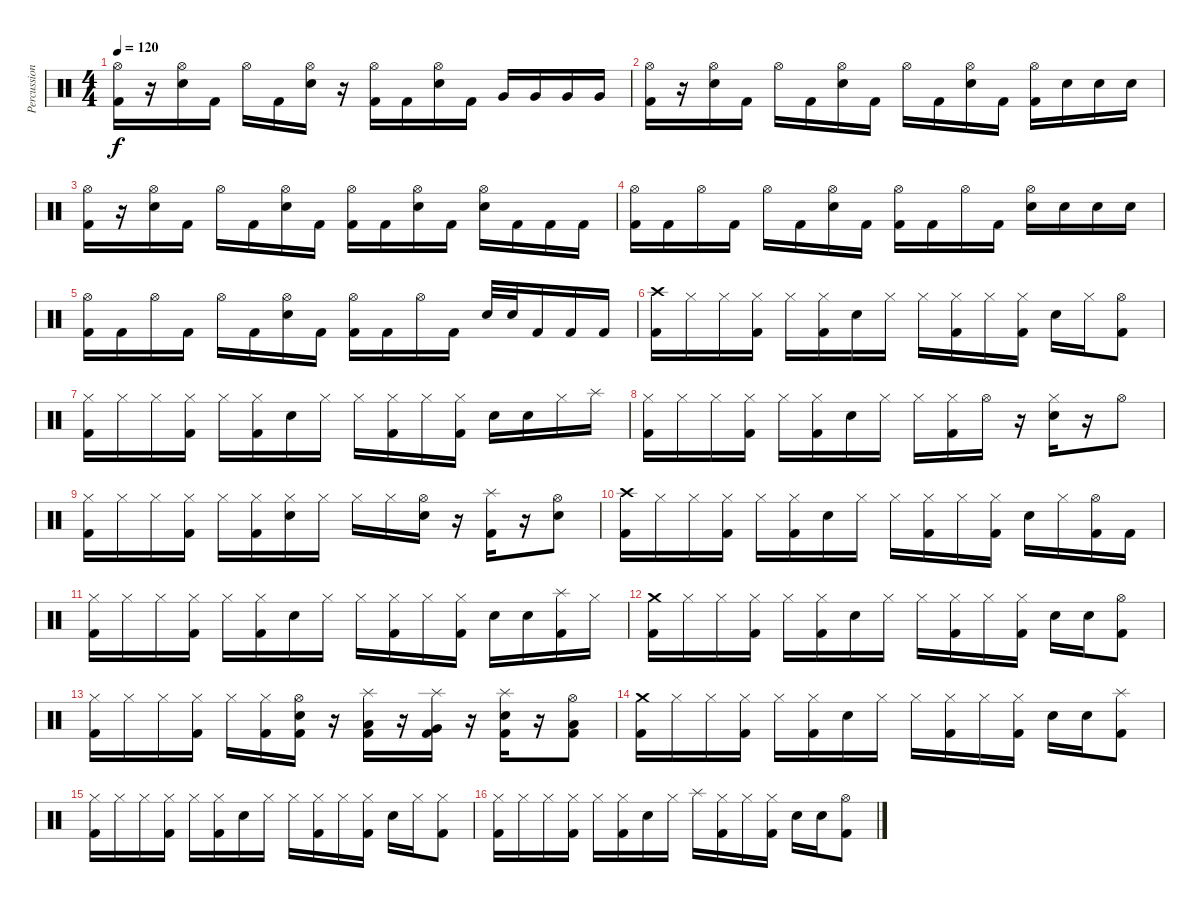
\track ("Percussion" "Percussion") {instrument percussion}
\staff {score}
\articulation defaults
\ts (4 4)
\tempo 120
\clef neutral
\ks c
("Hi-Hat (open)" "Kick (hit) 2").16{dy f} r.16 ("Hi-Hat (open)" "Electric Snare (hit)").16 "Kick (hit) 2".16 "Hi-Hat (open)".16 "Kick (hit) 2".16 ("Hi-Hat (open)" "Electric Snare (hit)").16 r.16 ("Hi-Hat (open)" "Kick (hit) 2").16 "Kick (hit) 2".16 ("Hi-Hat (open)" "Electric Snare (hit)").16 "Kick (hit) 2".16 "Very Low Tom (hit)".16 "Very Low Tom (hit)".16 "Very Low Tom (hit)".16 "Very Low Tom (hit)".16 |
("Hi-Hat (open)" "Kick (hit) 2").16 r.16 ("Hi-Hat (open)" "Electric Snare (hit)").16 "Kick (hit) 2".16 "Hi-Hat (open)".16 "Kick (hit) 2".16 ("Hi-Hat (open)" "Electric Snare (hit)").16 "Kick (hit) 2".16 "Hi-Hat (open)".16 "Kick (hit) 2".16 ("Hi-Hat (open)" "Electric Snare (hit)").16 "Kick (hit) 2".16 ("Hi-Hat (open)" "Kick (hit) 2").16 "Electric Snare (hit)".16 "Electric Snare (hit)".16 "Electric Snare (hit)".16 |
("Hi-Hat (open)" "Kick (hit) 2").16 r.16 ("Hi-Hat (open)" "Electric Snare (hit)").16 "Kick (hit) 2".16 "Hi-Hat (open)".16 "Kick (hit) 2".16 ("Hi-Hat (open)" "Electric Snare (hit)").16 "Kick (hit) 2".16 ("Hi-Hat (open)" "Kick (hit) 2").16 "Kick (hit) 2".16 ("Hi-Hat (open)" "Electric Snare (hit)").16 "Kick (hit) 2".16 ("Hi-Hat (open)" "Electric Snare (hit)").16 "Kick (hit) 2".16 "Kick (hit) 2".16 "Kick (hit) 2".16 |
("Hi-Hat (open)" "Kick (hit) 2").16 "Kick (hit) 2".16 "Hi-Hat (open)".16 "Kick (hit) 2".16 "Hi-Hat (open)".16 "Kick (hit) 2".16 ("Hi-Hat (open)" "Electric Snare (hit)").16 "Kick (hit) 2".16 ("Hi-Hat (open)" "Kick (hit) 2").16 "Kick (hit) 2".16 "Hi-Hat (open)".16 "Kick (hit) 2".16 ("Hi-Hat (open)" "Electric Snare (hit)").16 "Electric Snare (hit)".16 "Electric Snare (hit)".16 "Electric Snare (hit)".16 |
("Hi-Hat (open)" "Kick (hit) 2").16 "Kick (hit) 2".16 "Hi-Hat (open)".16 "Kick (hit) 2".16 "Hi-Hat (open)".16 "Kick (hit) 2".16 ("Hi-Hat (open)" "Electric Snare (hit)").16 "Kick (hit) 2".16 ("Hi-Hat (open)" "Kick (hit) 2").16 "Kick (hit) 2".16 "Hi-Hat (open)".16 "Kick (hit) 2".16 "Electric Snare (hit)".32 "Electric Snare (hit)".32 "Kick (hit) 2".16 "Kick (hit) 2".16 "Kick (hit) 2".16 |
("Crash high (hit)" "Kick (hit) 2").16 "Hi-Hat (closed)".16 "Hi-Hat (closed)".16 ("Hi-Hat (closed)" "Kick (hit) 2").16 "Hi-Hat (closed)".16 ("Hi-Hat (closed)" "Kick (hit) 2").16 "Electric Snare (hit)".16 "Hi-Hat (closed)".16 "Hi-Hat (closed)".16 ("Hi-Hat (closed)" "Kick (hit) 2").16 "Hi-Hat (closed)".16 ("Hi-Hat (closed)" "Kick (hit) 2").16 "Electric Snare (hit)".16 "Hi-Hat (closed)".16 ("Hi-Hat (open)" "Kick (hit) 2").8 |
("Hi-Hat (closed)" "Kick (hit) 2").16 "Hi-Hat (closed)".16 "Hi-Hat (closed)".16 ("Hi-Hat (closed)" "Kick (hit) 2").16 "Hi-Hat (closed)".16 ("Hi-Hat (closed)" "Kick (hit) 2").16 "Electric Snare (hit)".16 "Hi-Hat (closed)".16 "Hi-Hat (closed)".16 ("Hi-Hat (closed)" "Kick (hit) 2").16 "Hi-Hat (closed)".16 ("Hi-Hat (closed)" "Kick (hit) 2").16 "Electric Snare (hit)".16 "Electric Snare (hit)".16 "Hi-Hat (closed)".16 "Splash (hit)".16 |
("Hi-Hat (closed)" "Kick (hit) 2").16 "Hi-Hat (closed)".16 "Hi-Hat (closed)".16 ("Hi-Hat (closed)" "Kick (hit) 2").16 "Hi-Hat (closed)".16 ("Hi-Hat (closed)" "Kick (hit) 2").16 "Electric Snare (hit)".16 "Hi-Hat (closed)".16 "Hi-Hat (closed)".16 ("Hi-Hat (closed)" "Kick (hit) 2").16 "Hi-Hat (open)".16 r.16 ("Hi-Hat (closed)" "Electric Snare (hit)").16 r.16 "Hi-Hat (open)".8 |
("Hi-Hat (closed)" "Kick (hit) 2").16 "Hi-Hat (closed)".16 "Hi-Hat (closed)".16 ("Hi-Hat (closed)" "Kick (hit) 2").16 "Hi-Hat (closed)".16 ("Hi-Hat (closed)" "Kick (hit) 2").16 ("Hi-Hat (closed)" "Electric Snare (hit)").16 "Hi-Hat (closed)".16 "Hi-Hat (closed)".16 "Hi-Hat (closed)".16 ("Hi-Hat (open)" "Electric Snare (hit)").16 r.16 ("Splash (hit)" "Kick (hit) 2").16 r.16 ("Hi-Hat (open)" "Electric Snare (hit)").8 |
("Crash high (hit)" "Kick (hit) 2").16 "Hi-Hat (closed)".16 "Hi-Hat (closed)".16 ("Hi-Hat (closed)" "Kick (hit) 2").16 "Hi-Hat (closed)".16 ("Hi-Hat (closed)" "Kick (hit) 2").16 "Electric Snare (hit)".16 "Hi-Hat (closed)".16 "Hi-Hat (closed)".16 ("Hi-Hat (closed)" "Kick (hit) 2").16 "Hi-Hat (closed)".16 ("Hi-Hat (closed)" "Kick (hit) 2").16 "Electric Snare (hit)".16 "Hi-Hat (closed)".16 ("Hi-Hat (open)" "Kick (hit) 2").16 "Kick (hit) 2".16 |
("Hi-Hat (closed)" "Kick (hit) 2").16 "Hi-Hat (closed)".16 "Hi-Hat (closed)".16 ("Hi-Hat (closed)" "Kick (hit) 2").16 "Hi-Hat (closed)".16 ("Hi-Hat (closed)" "Kick (hit) 2").16 "Electric Snare (hit)".16 "Hi-Hat (closed)".16 "Hi-Hat (closed)".16 ("Hi-Hat (closed)" "Kick (hit) 2").16 "Hi-Hat (closed)".16 ("Hi-Hat (closed)" "Kick (hit) 2").16 "Electric Snare (hit)".16 "Electric Snare (hit)".16 ("Splash (hit)" "Kick (hit) 2").16 "Hi-Hat (closed)".16 |
("Crash medium (hit)" "Kick (hit) 2").16 "Hi-Hat (closed)".16 "Hi-Hat (closed)".16 ("Hi-Hat (closed)" "Kick (hit) 2").16 "Hi-Hat (closed)".16 ("Hi-Hat (closed)" "Kick (hit) 2").16 "Electric Snare (hit)".16 "Hi-Hat (closed)".16 "Hi-Hat (closed)".16 ("Hi-Hat (closed)" "Kick (hit) 2").16 "Hi-Hat (closed)".16 ("Hi-Hat (closed)" "Kick (hit) 2").16 "Electric Snare (hit)".16 "Electric Snare (hit)".16 ("Hi-Hat (open)" "Kick (hit) 2").8 |
("Hi-Hat (closed)" "Kick (hit) 2").16 "Hi-Hat (closed)".16 "Hi-Hat (closed)".16 ("Hi-Hat (closed)" "Kick (hit) 2").16 "Hi-Hat (closed)".16 ("Hi-Hat (closed)" "Kick (hit) 2").16 ("Hi-Hat (open)" "Electric Snare (hit)" "Kick (hit) 2").16 r.16 ("Splash (hit)" "Low Tom (hit)" "Kick (hit) 2").16 r.16 ("Splash (hit)" "Very Low Tom (hit)" "Kick (hit) 2").16 r.16 ("Splash (hit)" "Electric Snare (hit)" "Kick (hit) 2").16 r.16 ("Hi-Hat (open)" "Low Tom (hit)" "Kick (hit) 2").8 |
("Crash medium (hit)" "Kick (hit) 2").16 "Hi-Hat (closed)".16 "Hi-Hat (closed)".16 ("Hi-Hat (closed)" "Kick (hit) 2").16 "Hi-Hat (closed)".16 ("Hi-Hat (closed)" "Kick (hit) 2").16 "Electric Snare (hit)".16 "Hi-Hat (closed)".16 "Hi-Hat (closed)".16 ("Hi-Hat (closed)" "Kick (hit) 2").16 "Hi-Hat (closed)".16 ("Hi-Hat (closed)" "Kick (hit) 2").16 "Electric Snare (hit)".16 "Electric Snare (hit)".16 ("Splash (hit)" "Kick (hit) 2").8 |
("Hi-Hat (closed)" "Kick (hit) 2").16 "Hi-Hat (closed)".16 "Hi-Hat (closed)".16 ("Hi-Hat (closed)" "Kick (hit) 2").16 "Hi-Hat (closed)".16 ("Hi-Hat (closed)" "Kick (hit) 2").16 "Electric Snare (hit)".16 "Hi-Hat (closed)".16 "Hi-Hat (closed)".16 ("Hi-Hat (closed)" "Kick (hit) 2").16 "Hi-Hat (closed)".16 ("Hi-Hat (closed)" "Kick (hit) 2").16 "Electric Snare (hit)".16 "Hi-Hat (closed)".16 ("Hi-Hat (closed)" "Kick (hit) 2").8 |
("Hi-Hat (closed)" "Kick (hit) 2").16 "Hi-Hat (closed)".16 "Hi-Hat (closed)".16 ("Hi-Hat (closed)" "Kick (hit) 2").16 "Hi-Hat (closed)".16 ("Hi-Hat (closed)" "Kick (hit) 2").16 "Electric Snare (hit)".16 "Hi-Hat (closed)".16 "Splash (hit)".16 ("Hi-Hat (closed)" "Kick (hit) 2").16 "Hi-Hat (closed)".16 ("Hi-Hat (closed)" "Kick (hit) 2").16 "Electric Snare (hit)".16 "Electric Snare (hit)".16 ("Hi-Hat (open)" "Kick (hit) 2").8
